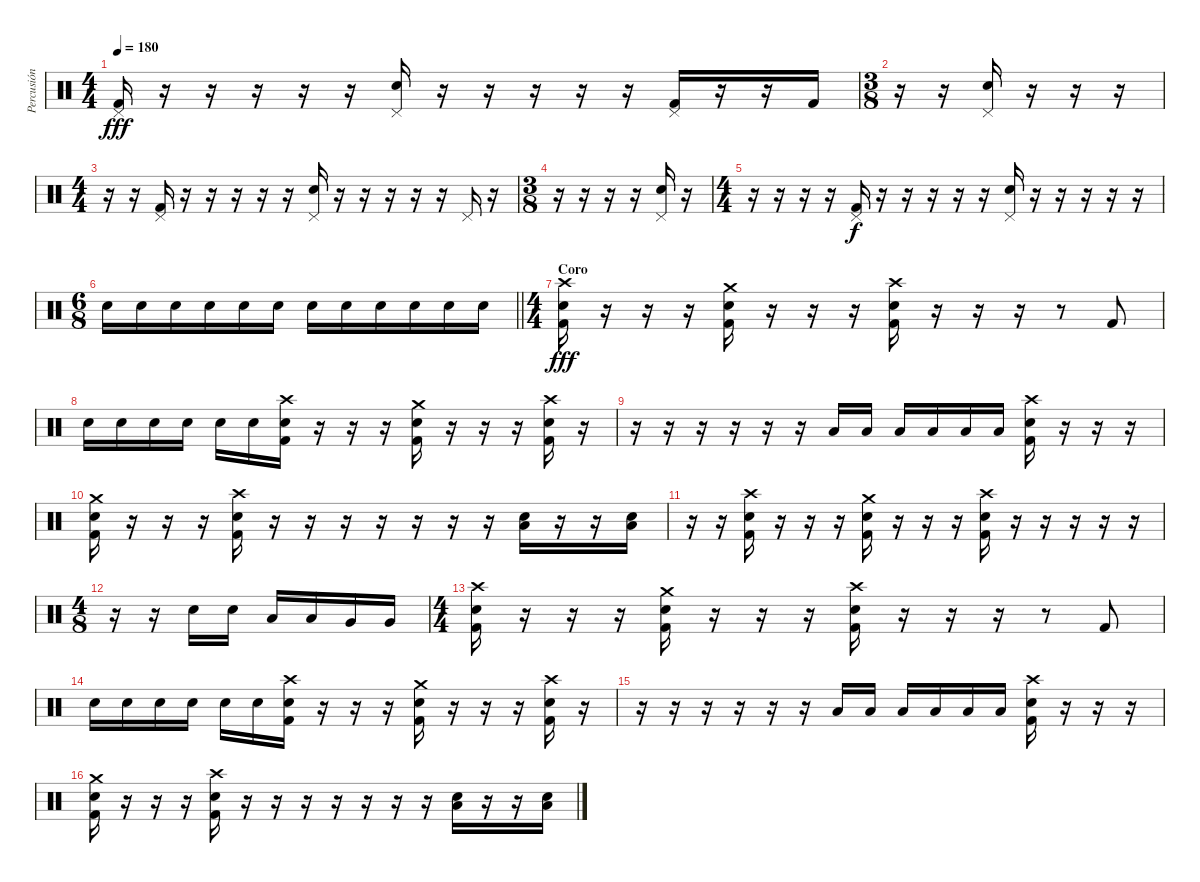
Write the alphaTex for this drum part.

\track ("Percusión" "Percusión") {instrument percussion}
\staff {score}
\articulation defaults
\ts (4 4)
\tempo 180
\clef neutral
\ks c
("Pedal Hi-Hat (hit)" "Kick (hit) 2").16{dy fff} r.16 r.16 r.16 r.16 r.16 ("Pedal Hi-Hat (hit)" "Snare (hit) 2").16 r.16 r.16 r.16 r.16 r.16 ("Pedal Hi-Hat (hit)" "Kick (hit) 2").16 r.16 r.16 "Kick (hit) 2".16 |
\ts (3 8)
r.16 r.16 ("Pedal Hi-Hat (hit)" "Snare (hit) 2").16 r.16 r.16 r.16 |
\ts (4 4)
r.16 r.16 ("Pedal Hi-Hat (hit)" "Kick (hit) 2").16 r.16 r.16 r.16 r.16 r.16 ("Pedal Hi-Hat (hit)" "Snare (hit) 2").16 r.16 r.16 r.16 r.16 r.16 "Pedal Hi-Hat (hit)".16 r.16 |
\ts (3 8)
r.16 r.16 r.16 r.16 ("Pedal Hi-Hat (hit)" "Snare (hit) 2").16 r.16 |
\ts (4 4)
r.16 r.16 r.16 r.16 ("Pedal Hi-Hat (hit)" "Kick (hit) 2").16{dy f} r.16 r.16 r.16 r.16 r.16 ("Pedal Hi-Hat (hit)" "Snare (hit) 2").16 r.16 r.16 r.16 r.16 r.16 |
\ts (6 8)
\barLineRight lightlight "Snare (hit) 2".16 "Snare (hit) 2".16 "Snare (hit) 2".16 "Snare (hit) 2".16 "Snare (hit) 2".16 "Snare (hit) 2".16 "Snare (hit) 2".16 "Snare (hit) 2".16 "Snare (hit) 2".16 "Snare (hit) 2".16 "Snare (hit) 2".16 "Snare (hit) 2".16
|
\ts (4 4)
\section ("" "Coro")
("Crash high (hit)" "Snare (hit) 2" "Kick (hit) 2").16{dy fff} r.16 r.16 r.16 ("Crash medium (hit)" "Snare (hit) 2" "Kick (hit) 2").16 r.16 r.16 r.16 ("Crash high (hit)" "Snare (hit) 2" "Kick (hit) 2").16 r.16 r.16 r.16 r.8 "Kick (hit) 2".8 |
"Snare (hit) 2".16 "Snare (hit) 2".16 "Snare (hit) 2".16 "Snare (hit) 2".16 "Snare (hit) 2".16 "Snare (hit) 2".16 ("Crash high (hit)" "Snare (hit) 2" "Kick (hit) 2").16 r.16 r.16 r.16 ("Crash medium (hit)" "Snare (hit) 2" "Kick (hit) 2").16 r.16 r.16 r.16 ("Crash high (hit)" "Snare (hit) 2" "Kick (hit) 2").16 r.16 |
r.16 r.16 r.16 r.16 r.16 r.16 "Low Tom (hit)".16 "Low Tom (hit)".16 "Low Tom (hit)".16 "Low Tom (hit)".16 "Low Tom (hit)".16 "Low Tom (hit)".16 ("Crash high (hit)" "Snare (hit) 2" "Kick (hit) 2").16 r.16 r.16 r.16 |
("Crash medium (hit)" "Snare (hit) 2" "Kick (hit) 2").16 r.16 r.16 r.16 ("Crash high (hit)" "Snare (hit) 2" "Kick (hit) 2").16 r.16 r.16 r.16 r.16 r.16 r.16 r.16 ("Snare (hit) 2" "Low Tom (hit)").16 r.16 r.16 ("Snare (hit) 2" "Low Tom (hit)").16 |
r.16 r.16 ("Crash high (hit)" "Snare (hit) 2" "Kick (hit) 2").16 r.16 r.16 r.16 ("Crash medium (hit)" "Snare (hit) 2" "Kick (hit) 2").16 r.16 r.16 r.16 ("Crash high (hit)" "Snare (hit) 2" "Kick (hit) 2").16 r.16 r.16 r.16 r.16 r.16 |
\ts (4 8)
r.16 r.16 "Snare (hit) 2".16 "Snare (hit) 2".16 "Low Tom (hit)".16 "Low Tom (hit)".16 "Very Low Tom (hit)".16 "Very Low Tom (hit)".16 |
\ts (4 4)
("Crash high (hit)" "Snare (hit) 2" "Kick (hit) 2").16 r.16 r.16 r.16 ("Crash medium (hit)" "Snare (hit) 2" "Kick (hit) 2").16 r.16 r.16 r.16 ("Crash high (hit)" "Snare (hit) 2" "Kick (hit) 2").16 r.16 r.16 r.16 r.8 "Kick (hit) 2".8 |
"Snare (hit) 2".16 "Snare (hit) 2".16 "Snare (hit) 2".16 "Snare (hit) 2".16 "Snare (hit) 2".16 "Snare (hit) 2".16 ("Crash high (hit)" "Snare (hit) 2" "Kick (hit) 2").16 r.16 r.16 r.16 ("Crash medium (hit)" "Snare (hit) 2" "Kick (hit) 2").16 r.16 r.16 r.16 ("Crash high (hit)" "Snare (hit) 2" "Kick (hit) 2").16 r.16 |
r.16 r.16 r.16 r.16 r.16 r.16 "Low Tom (hit)".16 "Low Tom (hit)".16 "Low Tom (hit)".16 "Low Tom (hit)".16 "Low Tom (hit)".16 "Low Tom (hit)".16 ("Crash high (hit)" "Snare (hit) 2" "Kick (hit) 2").16 r.16 r.16 r.16 |
("Crash medium (hit)" "Snare (hit) 2" "Kick (hit) 2").16 r.16 r.16 r.16 ("Crash high (hit)" "Snare (hit) 2" "Kick (hit) 2").16 r.16 r.16 r.16 r.16 r.16 r.16 r.16 ("Snare (hit) 2" "Low Tom (hit)").16 r.16 r.16 ("Snare (hit) 2" "Low Tom (hit)").16
